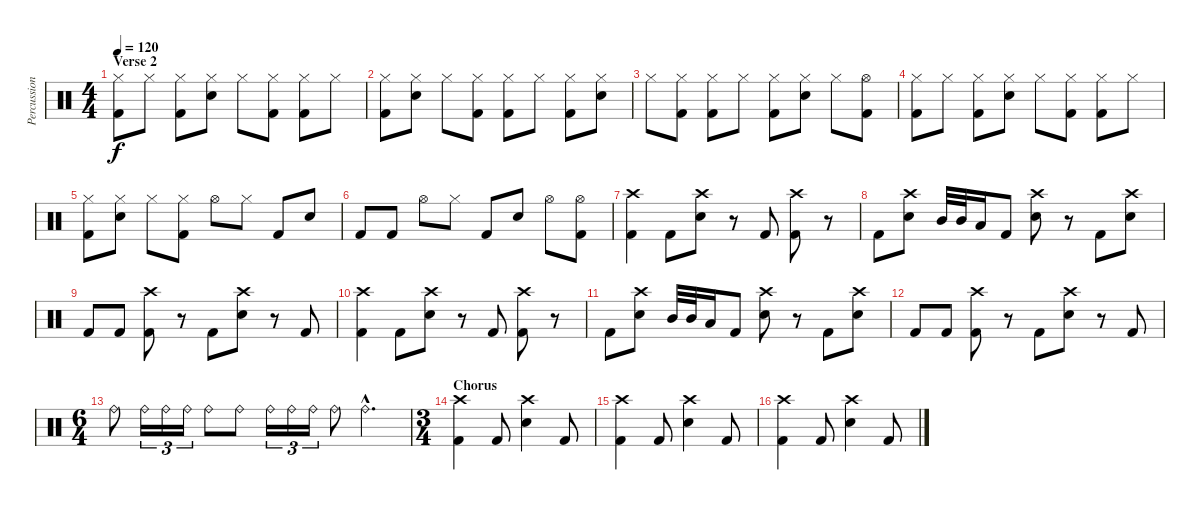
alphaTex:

\track ("Percussion" "Percussion") {instrument percussion}
\staff {score}
\articulation defaults
\ts (4 4)
\section ("" "Verse 2")
\tempo 120
\clef neutral
\ks c
("Hi-Hat (closed)" "Kick (hit) 2").8{dy f} "Hi-Hat (closed)".8 ("Hi-Hat (closed)" "Kick (hit) 2").8 ("Hi-Hat (closed)" "Snare (hit) 2").8 "Hi-Hat (closed)".8 ("Hi-Hat (closed)" "Kick (hit) 2").8 ("Hi-Hat (closed)" "Kick (hit) 2").8 "Hi-Hat (closed)".8 |
("Hi-Hat (closed)" "Kick (hit) 2").8 ("Hi-Hat (closed)" "Snare (hit) 2").8 "Hi-Hat (closed)".8 ("Hi-Hat (closed)" "Kick (hit) 2").8 ("Hi-Hat (closed)" "Kick (hit) 2").8 "Hi-Hat (closed)".8 ("Hi-Hat (closed)" "Kick (hit) 2").8 ("Hi-Hat (closed)" "Snare (hit) 2").8 |
"Hi-Hat (closed)".8 ("Hi-Hat (closed)" "Kick (hit) 2").8 ("Hi-Hat (closed)" "Kick (hit) 2").8 "Hi-Hat (closed)".8 ("Hi-Hat (closed)" "Kick (hit) 2").8 ("Hi-Hat (closed)" "Snare (hit) 2").8 "Hi-Hat (closed)".8 ("Hi-Hat (open)" "Kick (hit) 2").8 |
("Hi-Hat (closed)" "Kick (hit) 2").8 "Hi-Hat (closed)".8 ("Hi-Hat (closed)" "Kick (hit) 2").8 ("Hi-Hat (closed)" "Snare (hit) 2").8 "Hi-Hat (closed)".8 ("Hi-Hat (closed)" "Kick (hit) 2").8 ("Hi-Hat (closed)" "Kick (hit) 2").8 "Hi-Hat (closed)".8 |
("Hi-Hat (closed)" "Kick (hit) 2").8 ("Hi-Hat (closed)" "Snare (hit) 2").8 "Hi-Hat (closed)".8 ("Hi-Hat (closed)" "Kick (hit) 2").8 "Hi-Hat (open)".8 "Hi-Hat (closed)".8 "Kick (hit) 2".8 "Snare (hit) 2".8 |
"Kick (hit) 2".8 "Kick (hit) 2".8 "Hi-Hat (open)".8 "Hi-Hat (closed)".8 "Kick (hit) 2".8 "Snare (hit) 2".8 "Hi-Hat (open)".8 ("Hi-Hat (open)" "Kick (hit) 2").8 |
("Crash high (hit)" "Kick (hit) 2").4 "Kick (hit) 2".8 ("Crash high (hit)" "Snare (hit) 2").8 r.8 "Kick (hit) 2".8 ("Crash high (hit)" "Kick (hit) 2").8 r.8 |
"Kick (hit) 2".8 ("Crash high (hit)" "Snare (hit) 2").8 "Mid Tom (hit)".32 "Mid Tom (hit)".32 "Low Tom (hit)".16 "Kick (hit) 2".8 ("Crash high (hit)" "Snare (hit) 2").8 r.8 "Kick (hit) 2".8 ("Crash high (hit)" "Snare (hit) 2").8 |
"Kick (hit) 2".8 "Kick (hit) 2".8 ("Crash high (hit)" "Kick (hit) 2").8 r.8 "Kick (hit) 2".8 ("Crash high (hit)" "Snare (hit) 2").8 r.8 "Kick (hit) 2".8 |
("Crash high (hit)" "Kick (hit) 2").4 "Kick (hit) 2".8 ("Crash high (hit)" "Snare (hit) 2").8 r.8 "Kick (hit) 2".8 ("Crash high (hit)" "Kick (hit) 2").8 r.8 |
"Kick (hit) 2".8 ("Crash high (hit)" "Snare (hit) 2").8 "Mid Tom (hit)".32 "Mid Tom (hit)".32 "Low Tom (hit)".16 "Kick (hit) 2".8 ("Crash high (hit)" "Snare (hit) 2").8 r.8 "Kick (hit) 2".8 ("Crash high (hit)" "Snare (hit) 2").8 |
"Kick (hit) 2".8 "Kick (hit) 2".8 ("Crash high (hit)" "Kick (hit) 2").8 r.8 "Kick (hit) 2".8 ("Crash high (hit)" "Snare (hit) 2").8 r.8 "Kick (hit) 2".8 |
\ts (6 4)
"Ride (bell)".8 "Ride (bell)".16{tu (3 2)} "Ride (bell)".16{tu (3 2)} "Ride (bell)".16{tu (3 2)} "Ride (bell)".8 "Ride (bell)".8 "Ride (bell)".16{tu (3 2)} "Ride (bell)".16{tu (3 2)} "Ride (bell)".16{tu (3 2)} "Ride (bell)".8 "Ride (bell)"{hac}.2{d} |
\ts (3 4)
\section ("" "Chorus")
("Crash high (hit)" "Kick (hit) 2").4 "Kick (hit) 2".8 ("Crash high (hit)" "Snare (hit) 2").4 "Kick (hit) 2".8 |
("Crash high (hit)" "Kick (hit) 2").4 "Kick (hit) 2".8 ("Crash high (hit)" "Snare (hit) 2").4 "Kick (hit) 2".8 |
("Crash high (hit)" "Kick (hit) 2").4 "Kick (hit) 2".8 ("Crash high (hit)" "Snare (hit) 2").4 "Kick (hit) 2".8
